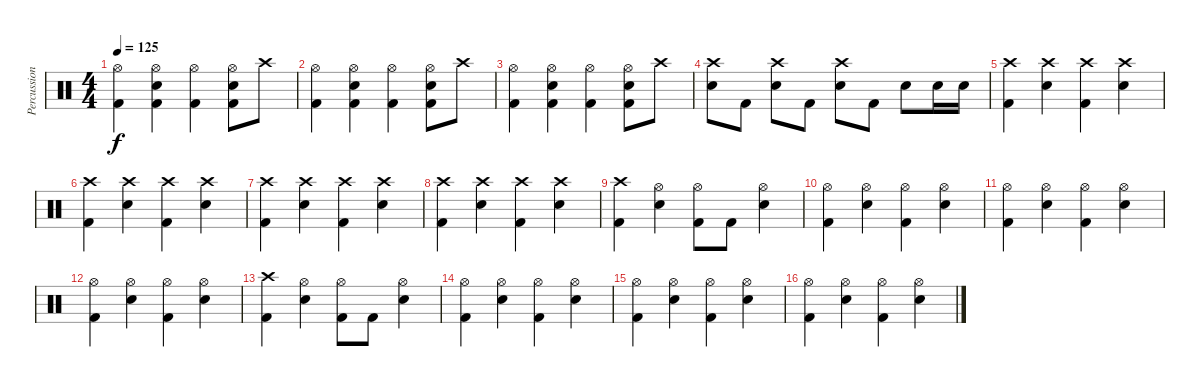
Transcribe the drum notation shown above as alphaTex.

\track ("Percussion" "Percussion") {instrument percussion}
\staff {score}
\articulation defaults
\ts (4 4)
\tempo 125
\clef neutral
\ks c
("Hi-Hat (open)" "Kick (hit) 2").4{dy f} ("Hi-Hat (open)" "Snare (hit) 2" "Kick (hit) 2").4 ("Hi-Hat (open)" "Kick (hit) 2").4 ("Hi-Hat (open)" "Snare (hit) 2" "Kick (hit) 2").8 "Crash high (hit)".8 |
("Hi-Hat (open)" "Kick (hit) 2").4 ("Hi-Hat (open)" "Snare (hit) 2" "Kick (hit) 2").4 ("Hi-Hat (open)" "Kick (hit) 2").4 ("Hi-Hat (open)" "Snare (hit) 2" "Kick (hit) 2").8 "Crash high (hit)".8 |
("Hi-Hat (open)" "Kick (hit) 2").4 ("Hi-Hat (open)" "Snare (hit) 2" "Kick (hit) 2").4 ("Hi-Hat (open)" "Kick (hit) 2").4 ("Hi-Hat (open)" "Snare (hit) 2" "Kick (hit) 2").8 "Crash high (hit)".8 |
("Crash high (hit)" "Snare (hit) 2").8 "Kick (hit) 2".8 ("Crash high (hit)" "Snare (hit) 2").8 "Kick (hit) 2".8 ("Crash high (hit)" "Snare (hit) 2").8 "Kick (hit) 2".8 "Snare (hit) 2".8 "Snare (hit) 2".16 "Snare (hit) 2".16 |
("Crash high (hit)" "Kick (hit) 2").4 ("Crash high (hit)" "Snare (hit) 2").4 ("Crash high (hit)" "Kick (hit) 2").4 ("Crash high (hit)" "Snare (hit) 2").4 |
("Crash high (hit)" "Kick (hit) 2").4 ("Crash high (hit)" "Snare (hit) 2").4 ("Crash high (hit)" "Kick (hit) 2").4 ("Crash high (hit)" "Snare (hit) 2").4 |
("Crash high (hit)" "Kick (hit) 2").4 ("Crash high (hit)" "Snare (hit) 2").4 ("Crash high (hit)" "Kick (hit) 2").4 ("Crash high (hit)" "Snare (hit) 2").4 |
("Crash high (hit)" "Kick (hit) 2").4 ("Crash high (hit)" "Snare (hit) 2").4 ("Crash high (hit)" "Kick (hit) 2").4 ("Crash high (hit)" "Snare (hit) 2").4 |
("Crash high (hit)" "Kick (hit) 2").4 ("Hi-Hat (open)" "Snare (hit) 2").4 ("Hi-Hat (open)" "Kick (hit) 2").8 "Kick (hit) 2".8 ("Hi-Hat (open)" "Snare (hit) 2").4 |
("Hi-Hat (open)" "Kick (hit) 2").4 ("Hi-Hat (open)" "Snare (hit) 2").4 ("Hi-Hat (open)" "Kick (hit) 2").4 ("Hi-Hat (open)" "Snare (hit) 2").4 |
("Hi-Hat (open)" "Kick (hit) 2").4 ("Hi-Hat (open)" "Snare (hit) 2").4 ("Hi-Hat (open)" "Kick (hit) 2").4 ("Hi-Hat (open)" "Snare (hit) 2").4 |
("Hi-Hat (open)" "Kick (hit) 2").4 ("Hi-Hat (open)" "Snare (hit) 2").4 ("Hi-Hat (open)" "Kick (hit) 2").4 ("Hi-Hat (open)" "Snare (hit) 2").4 |
("Crash high (hit)" "Kick (hit) 2").4 ("Hi-Hat (open)" "Snare (hit) 2").4 ("Hi-Hat (open)" "Kick (hit) 2").8 "Kick (hit) 2".8 ("Hi-Hat (open)" "Snare (hit) 2").4 |
("Hi-Hat (open)" "Kick (hit) 2").4 ("Hi-Hat (open)" "Snare (hit) 2").4 ("Hi-Hat (open)" "Kick (hit) 2").4 ("Hi-Hat (open)" "Snare (hit) 2").4 |
("Hi-Hat (open)" "Kick (hit) 2").4 ("Hi-Hat (open)" "Snare (hit) 2").4 ("Hi-Hat (open)" "Kick (hit) 2").4 ("Hi-Hat (open)" "Snare (hit) 2").4 |
("Hi-Hat (open)" "Kick (hit) 2").4 ("Hi-Hat (open)" "Snare (hit) 2").4 ("Hi-Hat (open)" "Kick (hit) 2").4 ("Hi-Hat (open)" "Snare (hit) 2").4
